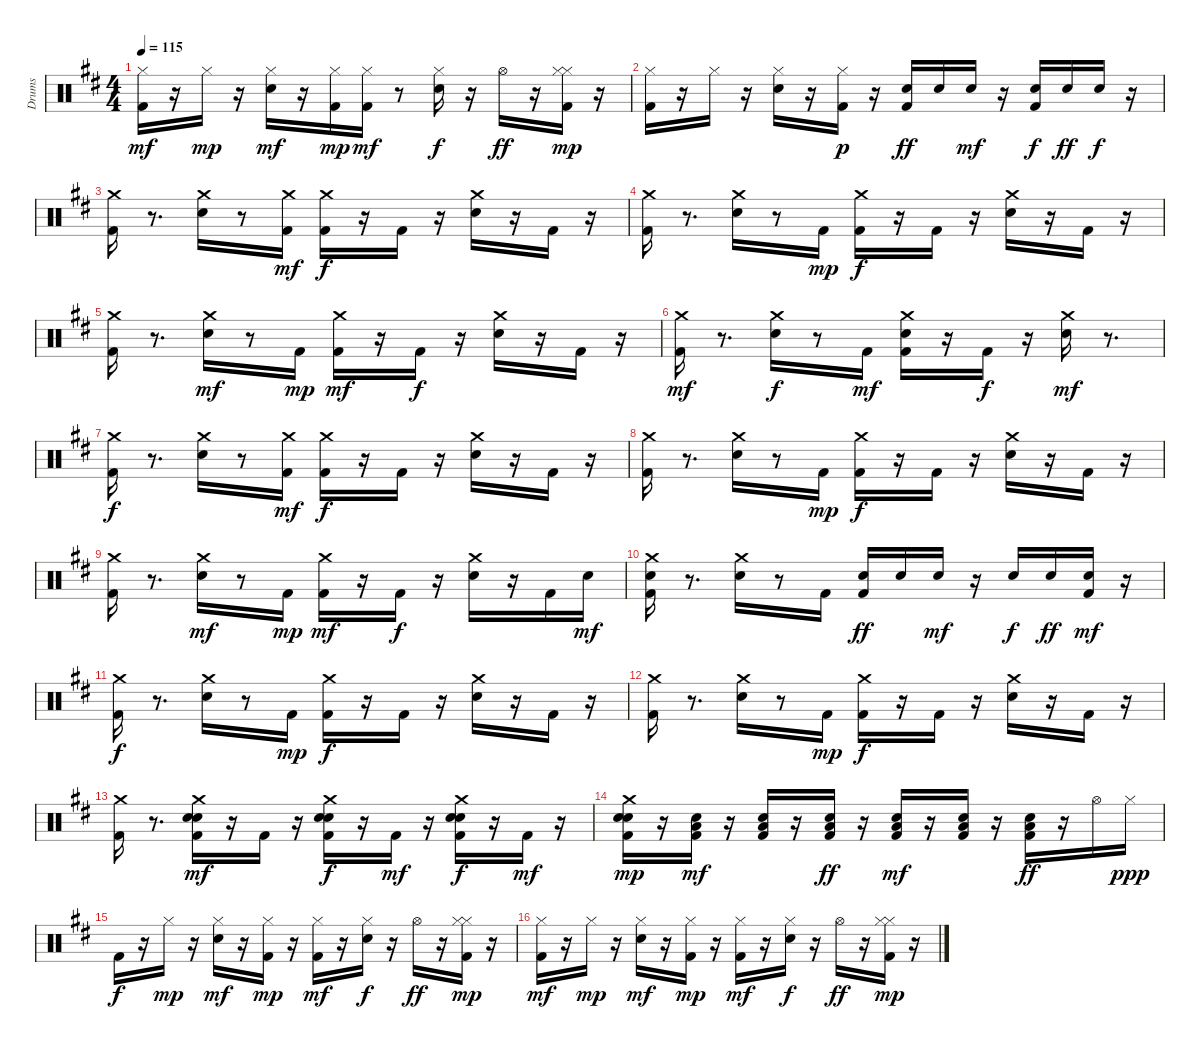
\track ("Drums" "Drums") {instrument percussion}
\staff {score}
\articulation defaults
\ts (4 4)
\tempo 115
\clef neutral
\ks d
("Kick (hit) 2" "Hi-Hat (closed)").16{dy mf} r.16 "Hi-Hat (closed)".16{dy mp} r.16 ("Hi-Hat (closed)" "Snare (hit) 2").16{dy mf} r.16 ("Kick (hit) 2" "Hi-Hat (closed)").16{dy mp} ("Kick (hit) 2" "Hi-Hat (closed)").16{dy mf} r.8 ("Hi-Hat (closed)" "Snare (hit) 2").16{dy f} r.16 "Hi-Hat (open)".16{dy ff} r.16 ("Hi-Hat (closed)" "Kick (hit) 2" "Hi-Hat (closed)").16{dy mp} r.16 |
("Kick (hit) 2" "Hi-Hat (closed)").16 r.16 "Hi-Hat (closed)".16 r.16 ("Hi-Hat (closed)" "Snare (hit) 2").16 r.16 ("Kick (hit) 2" "Hi-Hat (closed)").16{dy p} r.16 ("Kick (hit) 2" "Snare (hit) 2").16{dy ff} "Snare (hit) 2".16 "Snare (hit) 2".16{dy mf} r.16 ("Kick (hit) 2" "Snare (hit) 2").16{dy f} "Snare (hit) 2".16{dy ff} "Snare (hit) 2".16{dy f} r.16 |
("Kick (hit) 2" "Crash medium (hit)").16 r.8{d} ("Crash medium (hit)" "Snare (hit) 2").16 r.8 ("Kick (hit) 2" "Crash medium (hit)").16{dy mf} ("Kick (hit) 2" "Crash medium (hit)").16{dy f} r.16 "Kick (hit) 2".16 r.16 ("Crash medium (hit)" "Snare (hit) 2").16 r.16 "Kick (hit) 2".16 r.16 |
("Kick (hit) 2" "Crash medium (hit)").16 r.8{d} ("Crash medium (hit)" "Snare (hit) 2").16 r.8 "Kick (hit) 2".16{dy mp} ("Kick (hit) 2" "Crash medium (hit)").16{dy f} r.16 "Kick (hit) 2".16 r.16 ("Crash medium (hit)" "Snare (hit) 2").16 r.16 "Kick (hit) 2".16 r.16 |
("Kick (hit) 2" "Crash medium (hit)").16 r.8{d} ("Crash medium (hit)" "Snare (hit) 2").16{dy mf} r.8 "Kick (hit) 2".16{dy mp} ("Kick (hit) 2" "Crash medium (hit)").16{dy mf} r.16 "Kick (hit) 2".16{dy f} r.16 ("Crash medium (hit)" "Snare (hit) 2").16 r.16 "Kick (hit) 2".16 r.16 |
("Kick (hit) 2" "Crash medium (hit)").16{dy mf} r.8{d} ("Crash medium (hit)" "Snare (hit) 2").16{dy f} r.8 "Kick (hit) 2".16{dy mf} ("Kick (hit) 2" "Crash medium (hit)" "Snare (hit) 2").16 r.16 "Kick (hit) 2".16{dy f} r.16 ("Crash medium (hit)" "Snare (hit) 2").16{dy mf} r.8{d} |
("Kick (hit) 2" "Crash medium (hit)").16{dy f} r.8{d} ("Crash medium (hit)" "Snare (hit) 2").16 r.8 ("Kick (hit) 2" "Crash medium (hit)").16{dy mf} ("Kick (hit) 2" "Crash medium (hit)").16{dy f} r.16 "Kick (hit) 2".16 r.16 ("Crash medium (hit)" "Snare (hit) 2").16 r.16 "Kick (hit) 2".16 r.16 |
("Kick (hit) 2" "Crash medium (hit)").16 r.8{d} ("Crash medium (hit)" "Snare (hit) 2").16 r.8 "Kick (hit) 2".16{dy mp} ("Kick (hit) 2" "Crash medium (hit)").16{dy f} r.16 "Kick (hit) 2".16 r.16 ("Crash medium (hit)" "Snare (hit) 2").16 r.16 "Kick (hit) 2".16 r.16 |
("Kick (hit) 2" "Crash medium (hit)").16 r.8{d} ("Crash medium (hit)" "Snare (hit) 2").16{dy mf} r.8 "Kick (hit) 2".16{dy mp} ("Kick (hit) 2" "Crash medium (hit)").16{dy mf} r.16 "Kick (hit) 2".16{dy f} r.16 ("Crash medium (hit)" "Snare (hit) 2").16 r.16 "Kick (hit) 2".16 "Snare (hit) 2".16{dy mf} |
("Kick (hit) 2" "Crash medium (hit)" "Snare (hit) 2").16 r.8{d} ("Crash medium (hit)" "Snare (hit) 2").16 r.8 "Kick (hit) 2".16 ("Kick (hit) 2" "Snare (hit) 2").16{dy ff} "Snare (hit) 2".16 "Snare (hit) 2".16{dy mf} r.16 "Snare (hit) 2".16{dy f} "Snare (hit) 2".16{dy ff} ("Kick (hit) 2" "Snare (hit) 2").16{dy mf} r.16 |
("Kick (hit) 2" "Crash medium (hit)").16{dy f} r.8{d} ("Crash medium (hit)" "Snare (hit) 2").16 r.8 "Kick (hit) 2".16{dy mp} ("Kick (hit) 2" "Crash medium (hit)").16{dy f} r.16 "Kick (hit) 2".16 r.16 ("Crash medium (hit)" "Snare (hit) 2").16 r.16 "Kick (hit) 2".16 r.16 |
("Kick (hit) 2" "Crash medium (hit)").16 r.8{d} ("Crash medium (hit)" "Snare (hit) 2").16 r.8 "Kick (hit) 2".16{dy mp} ("Kick (hit) 2" "Crash medium (hit)").16{dy f} r.16 "Kick (hit) 2".16 r.16 ("Crash medium (hit)" "Snare (hit) 2").16 r.16 "Kick (hit) 2".16 r.16 |
("Kick (hit) 2" "Crash medium (hit)").16 r.8{d} ("Snare (hit) 2" "Kick (hit) 2" "Crash medium (hit)" "Snare (hit) 2").16{dy mf} r.16 "Kick (hit) 2".16 r.16 ("Snare (hit) 2" "Kick (hit) 2" "Crash medium (hit)" "Snare (hit) 2").16{dy f} r.16 "Kick (hit) 2".16{dy mf} r.16 ("Snare (hit) 2" "Kick (hit) 2" "Crash medium (hit)" "Snare (hit) 2").16{dy f} r.16 "Kick (hit) 2".16{dy mf} r.16 |
("Snare (hit) 2" "Kick (hit) 2" "Crash medium (hit)" "Snare (hit) 2").16{dy mp} r.16 ("Kick (hit) 2" "Low Floor Tom (hit)" "Snare (hit) 2").16{dy mf} r.16 ("Kick (hit) 2" "Low Floor Tom (hit)" "Snare (hit) 2").16 r.16 ("Kick (hit) 2" "Low Floor Tom (hit)" "Snare (hit) 2").16{dy ff} r.16 ("Kick (hit) 2" "Low Floor Tom (hit)" "Snare (hit) 2").16{dy mf} r.16 ("Kick (hit) 2" "Low Floor Tom (hit)" "Snare (hit) 2").16 r.16 ("Kick (hit) 2" "Low Floor Tom (hit)" "Snare (hit) 2").16{dy ff} r.16 "Hi-Hat (open)".16 "Hi-Hat (closed)".16{dy ppp} |
"Kick (hit) 2".16{dy f} r.16 "Hi-Hat (closed)".16{dy mp} r.16 ("Hi-Hat (closed)" "Snare (hit) 2").16{dy mf} r.16 ("Kick (hit) 2" "Hi-Hat (closed)").16{dy mp} r.16 ("Kick (hit) 2" "Hi-Hat (closed)").16{dy mf} r.16 ("Hi-Hat (closed)" "Snare (hit) 2").16{dy f} r.16 "Hi-Hat (open)".16{dy ff} r.16 ("Hi-Hat (closed)" "Kick (hit) 2" "Hi-Hat (closed)").16{dy mp} r.16 |
("Kick (hit) 2" "Hi-Hat (closed)").16{dy mf} r.16 "Hi-Hat (closed)".16{dy mp} r.16 ("Hi-Hat (closed)" "Snare (hit) 2").16{dy mf} r.16 ("Kick (hit) 2" "Hi-Hat (closed)").16{dy mp} r.16 ("Kick (hit) 2" "Hi-Hat (closed)").16{dy mf} r.16 ("Hi-Hat (closed)" "Snare (hit) 2").16{dy f} r.16 "Hi-Hat (open)".16{dy ff} r.16 ("Hi-Hat (closed)" "Kick (hit) 2" "Hi-Hat (closed)").16{dy mp} r.16
